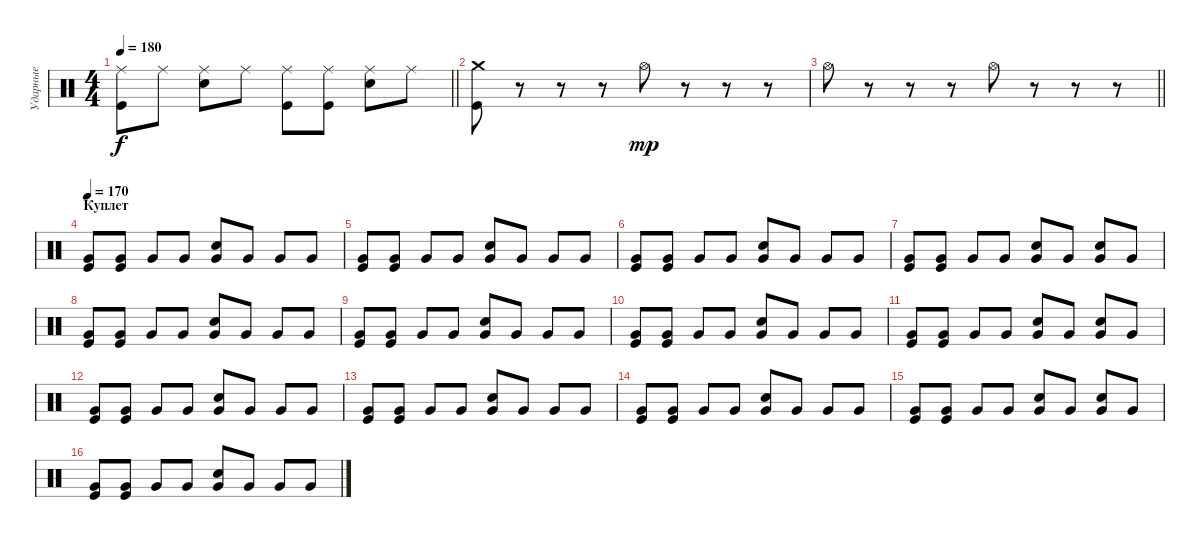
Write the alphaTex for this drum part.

\track ("Ударные" "Ударные") {instrument percussion}
\staff {score}
\articulation defaults
\ts (4 4)
\tempo 180
\clef neutral
\barLineRight lightlight
\ks c
("Ride (middle)" "Kick (hit)").8{dy f} "Ride (middle)".8 ("Ride (middle)" "Electric Snare (hit)").8 "Ride (middle)".8 ("Ride (middle)" "Kick (hit)").8 ("Ride (middle)" "Kick (hit)").8 ("Ride (middle)" "Electric Snare (hit)").8 "Ride (middle)".8 |
("Crash medium (hit)" "Kick (hit)").8 r.8 r.8 r.8 "Hi-Hat (open)".8{dy mp} r.8 r.8 r.8 |
\barLineRight lightlight "Hi-Hat (open)".8
r.8 r.8 r.8 "Hi-Hat (open)".8 r.8 r.8 r.8 |
\section ("" "Куплет")
\tempo 170
("Very Low Tom (hit)" "Kick (hit)").8 ("Very Low Tom (hit)" "Kick (hit)").8 "Very Low Tom (hit)".8 "Very Low Tom (hit)".8 ("Very Low Tom (hit)" "Electric Snare (hit)").8 "Very Low Tom (hit)".8 "Very Low Tom (hit)".8 "Very Low Tom (hit)".8 |
("Very Low Tom (hit)" "Kick (hit)").8 ("Very Low Tom (hit)" "Kick (hit)").8 "Very Low Tom (hit)".8 "Very Low Tom (hit)".8 ("Very Low Tom (hit)" "Electric Snare (hit)").8 "Very Low Tom (hit)".8 "Very Low Tom (hit)".8 "Very Low Tom (hit)".8 |
("Very Low Tom (hit)" "Kick (hit)").8 ("Very Low Tom (hit)" "Kick (hit)").8 "Very Low Tom (hit)".8 "Very Low Tom (hit)".8 ("Very Low Tom (hit)" "Electric Snare (hit)").8 "Very Low Tom (hit)".8 "Very Low Tom (hit)".8 "Very Low Tom (hit)".8 |
("Very Low Tom (hit)" "Kick (hit)").8 ("Very Low Tom (hit)" "Kick (hit)").8 "Very Low Tom (hit)".8 "Very Low Tom (hit)".8 ("Very Low Tom (hit)" "Electric Snare (hit)").8 "Very Low Tom (hit)".8 ("Very Low Tom (hit)" "Electric Snare (hit)").8 "Very Low Tom (hit)".8 |
("Very Low Tom (hit)" "Kick (hit)").8 ("Very Low Tom (hit)" "Kick (hit)").8 "Very Low Tom (hit)".8 "Very Low Tom (hit)".8 ("Very Low Tom (hit)" "Electric Snare (hit)").8 "Very Low Tom (hit)".8 "Very Low Tom (hit)".8 "Very Low Tom (hit)".8 |
("Very Low Tom (hit)" "Kick (hit)").8 ("Very Low Tom (hit)" "Kick (hit)").8 "Very Low Tom (hit)".8 "Very Low Tom (hit)".8 ("Very Low Tom (hit)" "Electric Snare (hit)").8 "Very Low Tom (hit)".8 "Very Low Tom (hit)".8 "Very Low Tom (hit)".8 |
("Very Low Tom (hit)" "Kick (hit)").8 ("Very Low Tom (hit)" "Kick (hit)").8 "Very Low Tom (hit)".8 "Very Low Tom (hit)".8 ("Very Low Tom (hit)" "Electric Snare (hit)").8 "Very Low Tom (hit)".8 "Very Low Tom (hit)".8 "Very Low Tom (hit)".8 |
("Very Low Tom (hit)" "Kick (hit)").8 ("Very Low Tom (hit)" "Kick (hit)").8 "Very Low Tom (hit)".8 "Very Low Tom (hit)".8 ("Very Low Tom (hit)" "Electric Snare (hit)").8 "Very Low Tom (hit)".8 ("Very Low Tom (hit)" "Electric Snare (hit)").8 "Very Low Tom (hit)".8 |
("Very Low Tom (hit)" "Kick (hit)").8 ("Very Low Tom (hit)" "Kick (hit)").8 "Very Low Tom (hit)".8 "Very Low Tom (hit)".8 ("Very Low Tom (hit)" "Electric Snare (hit)").8 "Very Low Tom (hit)".8 "Very Low Tom (hit)".8 "Very Low Tom (hit)".8 |
("Very Low Tom (hit)" "Kick (hit)").8 ("Very Low Tom (hit)" "Kick (hit)").8 "Very Low Tom (hit)".8 "Very Low Tom (hit)".8 ("Very Low Tom (hit)" "Electric Snare (hit)").8 "Very Low Tom (hit)".8 "Very Low Tom (hit)".8 "Very Low Tom (hit)".8 |
("Very Low Tom (hit)" "Kick (hit)").8 ("Very Low Tom (hit)" "Kick (hit)").8 "Very Low Tom (hit)".8 "Very Low Tom (hit)".8 ("Very Low Tom (hit)" "Electric Snare (hit)").8 "Very Low Tom (hit)".8 "Very Low Tom (hit)".8 "Very Low Tom (hit)".8 |
("Very Low Tom (hit)" "Kick (hit)").8 ("Very Low Tom (hit)" "Kick (hit)").8 "Very Low Tom (hit)".8 "Very Low Tom (hit)".8 ("Very Low Tom (hit)" "Electric Snare (hit)").8 "Very Low Tom (hit)".8 ("Very Low Tom (hit)" "Electric Snare (hit)").8 "Very Low Tom (hit)".8 |
("Very Low Tom (hit)" "Kick (hit)").8 ("Very Low Tom (hit)" "Kick (hit)").8 "Very Low Tom (hit)".8 "Very Low Tom (hit)".8 ("Very Low Tom (hit)" "Electric Snare (hit)").8 "Very Low Tom (hit)".8 "Very Low Tom (hit)".8 "Very Low Tom (hit)".8
